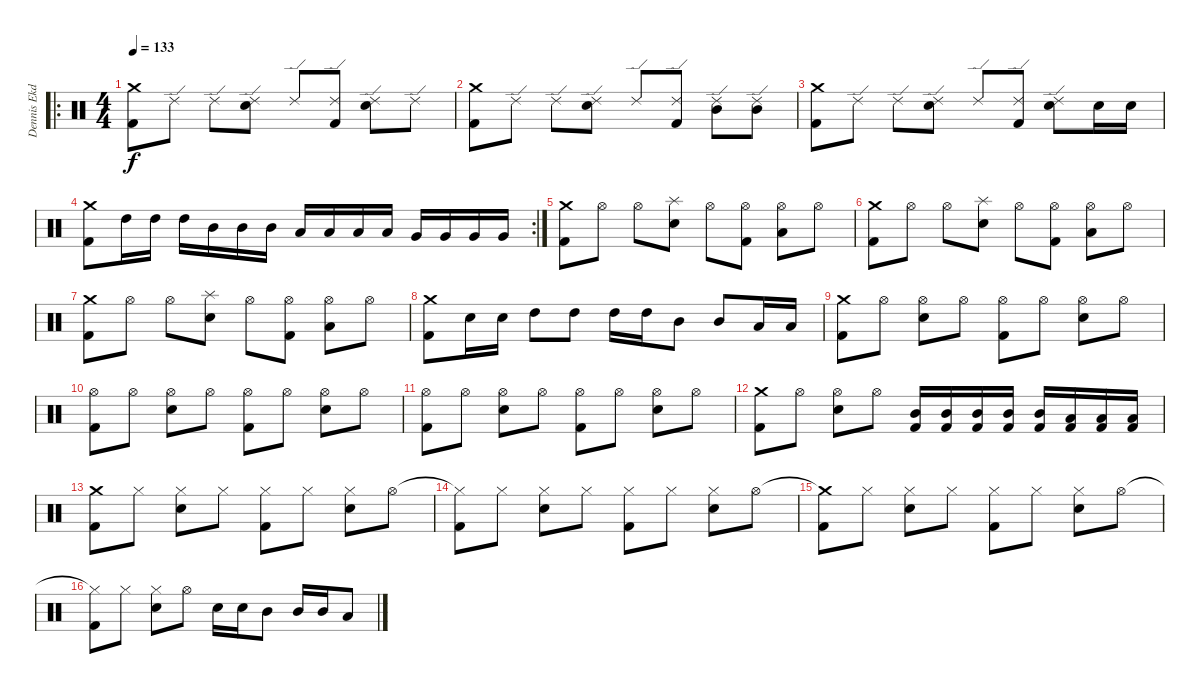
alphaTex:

\track ("Dennis Ekdahl" "Dennis Ekd") {instrument percussion}
\staff {score}
\articulation defaults
\ro
\ts (4 4)
\tempo 133
\clef neutral
\ks c
("Crash medium (hit)" "Kick (hit) 2").8{dy f} "Ride (edge) 2".8 "Ride (edge) 2".8 ("Ride (edge) 2" "Snare (hit) 2").8 "Ride (edge) 2".8 ("Ride (edge) 2" "Kick (hit) 2").8 ("Ride (edge) 2" "Snare (hit) 2").8 "Ride (edge) 2".8 |
("Crash medium (hit)" "Kick (hit) 2").8 "Ride (edge) 2".8 "Ride (edge) 2".8 ("Ride (edge) 2" "Snare (hit) 2").8 "Ride (edge) 2".8 ("Ride (edge) 2" "Kick (hit) 2").8 ("Ride (edge) 2" "Mid Tom (hit)").8 ("Ride (edge) 2" "Mid Tom (hit)").8 |
("Crash medium (hit)" "Kick (hit) 2").8 "Ride (edge) 2".8 "Ride (edge) 2".8 ("Ride (edge) 2" "Snare (hit) 2").8 "Ride (edge) 2".8 ("Ride (edge) 2" "Kick (hit) 2").8 ("Ride (edge) 2" "Snare (hit) 2").8 "Snare (hit) 2".16 "Snare (hit) 2".16 |
\rc 2
("Crash medium (hit)" "Kick (hit) 2").8 "High Tom (hit)".16 "High Tom (hit)".16 "High Tom (hit)".16 "Mid Tom (hit)".16 "Mid Tom (hit)".16 "Mid Tom (hit)".16 "Low Tom (hit)".16 "Low Tom (hit)".16 "Low Tom (hit)".16 "Low Tom (hit)".16 "Very Low Tom (hit)".16 "Very Low Tom (hit)".16 "Very Low Tom (hit)".16 "Very Low Tom (hit)".16 |
("Crash medium (hit)" "Kick (hit) 2").8 "Hi-Hat (open)".8 "Hi-Hat (open)".8 ("Splash (hit)" "Snare (hit) 2").8 "Hi-Hat (open)".8 ("Hi-Hat (open)" "Kick (hit) 2").8 ("Hi-Hat (open)" "Low Tom (hit)").8 "Hi-Hat (open)".8 |
("Crash medium (hit)" "Kick (hit) 2").8 "Hi-Hat (open)".8 "Hi-Hat (open)".8 ("Splash (hit)" "Snare (hit) 2").8 "Hi-Hat (open)".8 ("Hi-Hat (open)" "Kick (hit) 2").8 ("Hi-Hat (open)" "Low Tom (hit)").8 "Hi-Hat (open)".8 |
("Crash medium (hit)" "Kick (hit) 2").8 "Hi-Hat (open)".8 "Hi-Hat (open)".8 ("Splash (hit)" "Snare (hit) 2").8 "Hi-Hat (open)".8 ("Hi-Hat (open)" "Kick (hit) 2").8 ("Hi-Hat (open)" "Low Tom (hit)").8 "Hi-Hat (open)".8 |
("Crash medium (hit)" "Kick (hit) 2").8 "Snare (hit) 2".16 "Snare (hit) 2".16 "High Tom (hit)".8 "High Tom (hit)".8 "High Tom (hit)".16 "High Tom (hit)".16 "Mid Tom (hit)".8 "Mid Tom (hit)".8 "Low Tom (hit)".16 "Low Tom (hit)".16 |
("Crash medium (hit)" "Kick (hit) 2").8 "Hi-Hat (open)".8 ("Hi-Hat (open)" "Snare (hit) 2").8 "Hi-Hat (open)".8 ("Hi-Hat (open)" "Kick (hit) 2").8 "Hi-Hat (open)".8 ("Hi-Hat (open)" "Snare (hit) 2").8 "Hi-Hat (open)".8 |
("Hi-Hat (open)" "Kick (hit) 2").8 "Hi-Hat (open)".8 ("Hi-Hat (open)" "Snare (hit) 2").8 "Hi-Hat (open)".8 ("Hi-Hat (open)" "Kick (hit) 2").8 "Hi-Hat (open)".8 ("Hi-Hat (open)" "Snare (hit) 2").8 "Hi-Hat (open)".8 |
("Hi-Hat (open)" "Kick (hit) 2").8 "Hi-Hat (open)".8 ("Hi-Hat (open)" "Snare (hit) 2").8 "Hi-Hat (open)".8 ("Hi-Hat (open)" "Kick (hit) 2").8 "Hi-Hat (open)".8 ("Hi-Hat (open)" "Snare (hit) 2").8 "Hi-Hat (open)".8 |
("Crash medium (hit)" "Kick (hit) 2").8 "Hi-Hat (open)".8 ("Hi-Hat (open)" "Snare (hit) 2").8 "Hi-Hat (open)".8 ("Mid Tom (hit)" "Kick (hit) 2").16 ("Mid Tom (hit)" "Kick (hit) 2").16 ("Mid Tom (hit)" "Kick (hit) 2").16 ("Mid Tom (hit)" "Kick (hit) 2").16 ("Mid Tom (hit)" "Kick (hit) 2").16 ("Low Tom (hit)" "Kick (hit) 2").16 ("Low Tom (hit)" "Kick (hit) 2").16 ("Low Tom (hit)" "Kick (hit) 2").16 |
("Crash medium (hit)" "Kick (hit) 2").8 "Hi-Hat (closed)".8 ("Hi-Hat (closed)" "Snare (hit) 2").8 "Hi-Hat (closed)".8 ("Hi-Hat (closed)" "Kick (hit) 2").8 "Hi-Hat (closed)".8 ("Hi-Hat (closed)" "Snare (hit) 2").8 "Hi-Hat (open)".8 |
("Hi-Hat (closed)"{t} "Kick (hit) 2").8 "Hi-Hat (closed)".8 ("Hi-Hat (closed)" "Snare (hit) 2").8 "Hi-Hat (closed)".8 ("Hi-Hat (closed)" "Kick (hit) 2").8 "Hi-Hat (closed)".8 ("Hi-Hat (closed)" "Snare (hit) 2").8 "Hi-Hat (open)".8 |
("Crash medium (hit)"{t} "Kick (hit) 2").8 "Hi-Hat (closed)".8 ("Hi-Hat (closed)" "Snare (hit) 2").8 "Hi-Hat (closed)".8 ("Hi-Hat (closed)" "Kick (hit) 2").8 "Hi-Hat (closed)".8 ("Hi-Hat (closed)" "Snare (hit) 2").8 "Hi-Hat (open)".8 |
("Hi-Hat (closed)"{t} "Kick (hit) 2").8 "Hi-Hat (closed)".8 ("Hi-Hat (closed)" "Snare (hit) 2").8 "Hi-Hat (open)".8 "Snare (hit) 2".16 "Snare (hit) 2".16 "Mid Tom (hit)".8 "Mid Tom (hit)".16 "Mid Tom (hit)".16 "Low Tom (hit)".8
